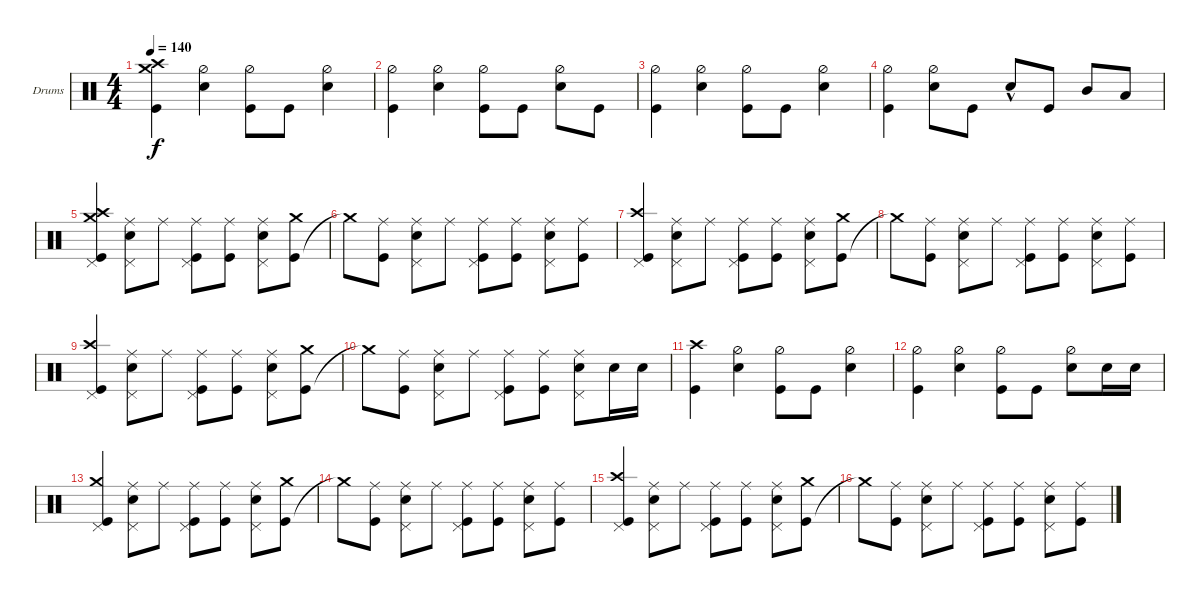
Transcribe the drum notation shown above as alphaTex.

\defaultSystemsLayout 4
\bracketExtendMode groupsimilarinstruments
\firstSystemTrackNameOrientation horizontal
\otherSystemsTrackNameOrientation horizontal
\track ("Steve" "Drums") {instrument percussion}
\staff {score}
\articulation defaults
\ts (4 4)
\tempo 140
\clef neutral
\ks c
("Kick (hit)" "Crash high (hit)" "Crash medium (hit)").4{dy f} ("Snare (hit) 2" "Hi-Hat (half)").4 ("Kick (hit)" "Hi-Hat (half)").8 "Kick (hit)".8 ("Snare (hit) 2" "Hi-Hat (half)").4 |
("Kick (hit)" "Hi-Hat (half)").4 ("Snare (hit) 2" "Hi-Hat (half)").4 ("Kick (hit)" "Hi-Hat (half)").8 "Kick (hit)".8 ("Snare (hit) 2" "Hi-Hat (half)").8 "Kick (hit)".8 |
("Kick (hit)" "Hi-Hat (half)").4 ("Snare (hit) 2" "Hi-Hat (half)").4 ("Kick (hit)" "Hi-Hat (half)").8 "Kick (hit)".8 ("Snare (hit) 2" "Hi-Hat (half)").4 |
("Kick (hit)" "Hi-Hat (half)").4 ("Snare (hit) 2" "Hi-Hat (half)").8 "Kick (hit)".8 "Snare (hit) 2"{hac}.8 "Kick (hit)".8 "Mid Tom (hit)".8 "Low Tom (hit)".8 |
("Kick (hit)" "Crash high (hit)" "Crash medium (hit)" "Pedal Hi-Hat (hit)").4 ("Snare (hit) 2" "Ride (middle)" "Pedal Hi-Hat (hit)").8 "Ride (middle)".8 ("Kick (hit)" "Ride (middle)" "Pedal Hi-Hat (hit)").8 ("Kick (hit)" "Ride (middle)").8 ("Snare (hit) 2" "Ride (middle)" "Pedal Hi-Hat (hit)").8 ("Kick (hit)" "Crash medium (hit)").8 |
"Crash medium (hit)"{t}.8 ("Kick (hit)" "Ride (middle)").8 ("Snare (hit) 2" "Ride (middle)" "Pedal Hi-Hat (hit)").8 "Ride (middle)".8 ("Kick (hit)" "Ride (middle)" "Pedal Hi-Hat (hit)").8 ("Kick (hit)" "Ride (middle)").8 ("Snare (hit) 2" "Ride (middle)" "Pedal Hi-Hat (hit)").8 ("Ride (middle)" "Kick (hit)").8 |
("Kick (hit)" "Crash high (hit)" "Pedal Hi-Hat (hit)").4 ("Snare (hit) 2" "Ride (middle)" "Pedal Hi-Hat (hit)").8 "Ride (middle)".8 ("Kick (hit)" "Ride (middle)" "Pedal Hi-Hat (hit)").8 ("Kick (hit)" "Ride (middle)").8 ("Snare (hit) 2" "Ride (middle)" "Pedal Hi-Hat (hit)").8 ("Kick (hit)" "Crash medium (hit)").8 |
"Crash medium (hit)"{t}.8 ("Kick (hit)" "Ride (middle)").8 ("Snare (hit) 2" "Ride (middle)" "Pedal Hi-Hat (hit)").8 "Ride (middle)".8 ("Kick (hit)" "Ride (middle)" "Pedal Hi-Hat (hit)").8 ("Kick (hit)" "Ride (middle)").8 ("Snare (hit) 2" "Ride (middle)" "Pedal Hi-Hat (hit)").8 ("Ride (middle)" "Kick (hit)").8 |
("Kick (hit)" "Crash high (hit)" "Pedal Hi-Hat (hit)").4 ("Snare (hit) 2" "Ride (middle)" "Pedal Hi-Hat (hit)").8 "Ride (middle)".8 ("Kick (hit)" "Ride (middle)" "Pedal Hi-Hat (hit)").8 ("Kick (hit)" "Ride (middle)").8 ("Snare (hit) 2" "Ride (middle)" "Pedal Hi-Hat (hit)").8 ("Kick (hit)" "Crash medium (hit)").8 |
"Crash medium (hit)"{t}.8 ("Kick (hit)" "Ride (middle)").8 ("Snare (hit) 2" "Ride (middle)" "Pedal Hi-Hat (hit)").8 "Ride (middle)".8 ("Kick (hit)" "Ride (middle)" "Pedal Hi-Hat (hit)").8 ("Kick (hit)" "Ride (middle)").8 ("Snare (hit) 2" "Ride (middle)" "Pedal Hi-Hat (hit)").8 "Snare (hit) 2".16 "Snare (hit) 2".16 |
("Crash high (hit)" "Kick (hit)").4 ("Snare (hit) 2" "Hi-Hat (half)").4 ("Kick (hit)" "Hi-Hat (half)").8 "Kick (hit)".8 ("Snare (hit) 2" "Hi-Hat (half)").4 |
("Kick (hit)" "Hi-Hat (half)").4 ("Snare (hit) 2" "Hi-Hat (half)").4 ("Kick (hit)" "Hi-Hat (half)").8 "Kick (hit)".8 ("Snare (hit) 2" "Hi-Hat (half)").8 "Snare (hit) 2".16 "Snare (hit) 2".16 |
("Kick (hit)" "Crash medium (hit)" "Pedal Hi-Hat (hit)").4 ("Snare (hit) 2" "Ride (middle)" "Pedal Hi-Hat (hit)").8 "Ride (middle)".8 ("Kick (hit)" "Ride (middle)" "Pedal Hi-Hat (hit)").8 ("Kick (hit)" "Ride (middle)").8 ("Snare (hit) 2" "Ride (middle)" "Pedal Hi-Hat (hit)").8 ("Kick (hit)" "Crash medium (hit)").8 |
"Crash medium (hit)"{t}.8 ("Kick (hit)" "Ride (middle)").8 ("Snare (hit) 2" "Ride (middle)" "Pedal Hi-Hat (hit)").8 "Ride (middle)".8 ("Kick (hit)" "Ride (middle)" "Pedal Hi-Hat (hit)").8 ("Kick (hit)" "Ride (middle)").8 ("Snare (hit) 2" "Ride (middle)" "Pedal Hi-Hat (hit)").8 ("Ride (middle)" "Kick (hit)").8 |
("Kick (hit)" "Crash high (hit)" "Pedal Hi-Hat (hit)").4 ("Snare (hit) 2" "Ride (middle)" "Pedal Hi-Hat (hit)").8 "Ride (middle)".8 ("Kick (hit)" "Ride (middle)" "Pedal Hi-Hat (hit)").8 ("Kick (hit)" "Ride (middle)").8 ("Snare (hit) 2" "Ride (middle)" "Pedal Hi-Hat (hit)").8 ("Kick (hit)" "Crash medium (hit)").8 |
"Crash medium (hit)"{t}.8 ("Kick (hit)" "Ride (middle)").8 ("Snare (hit) 2" "Ride (middle)" "Pedal Hi-Hat (hit)").8 "Ride (middle)".8 ("Kick (hit)" "Ride (middle)" "Pedal Hi-Hat (hit)").8 ("Kick (hit)" "Ride (middle)").8 ("Snare (hit) 2" "Ride (middle)" "Pedal Hi-Hat (hit)").8 ("Ride (middle)" "Kick (hit)").8
